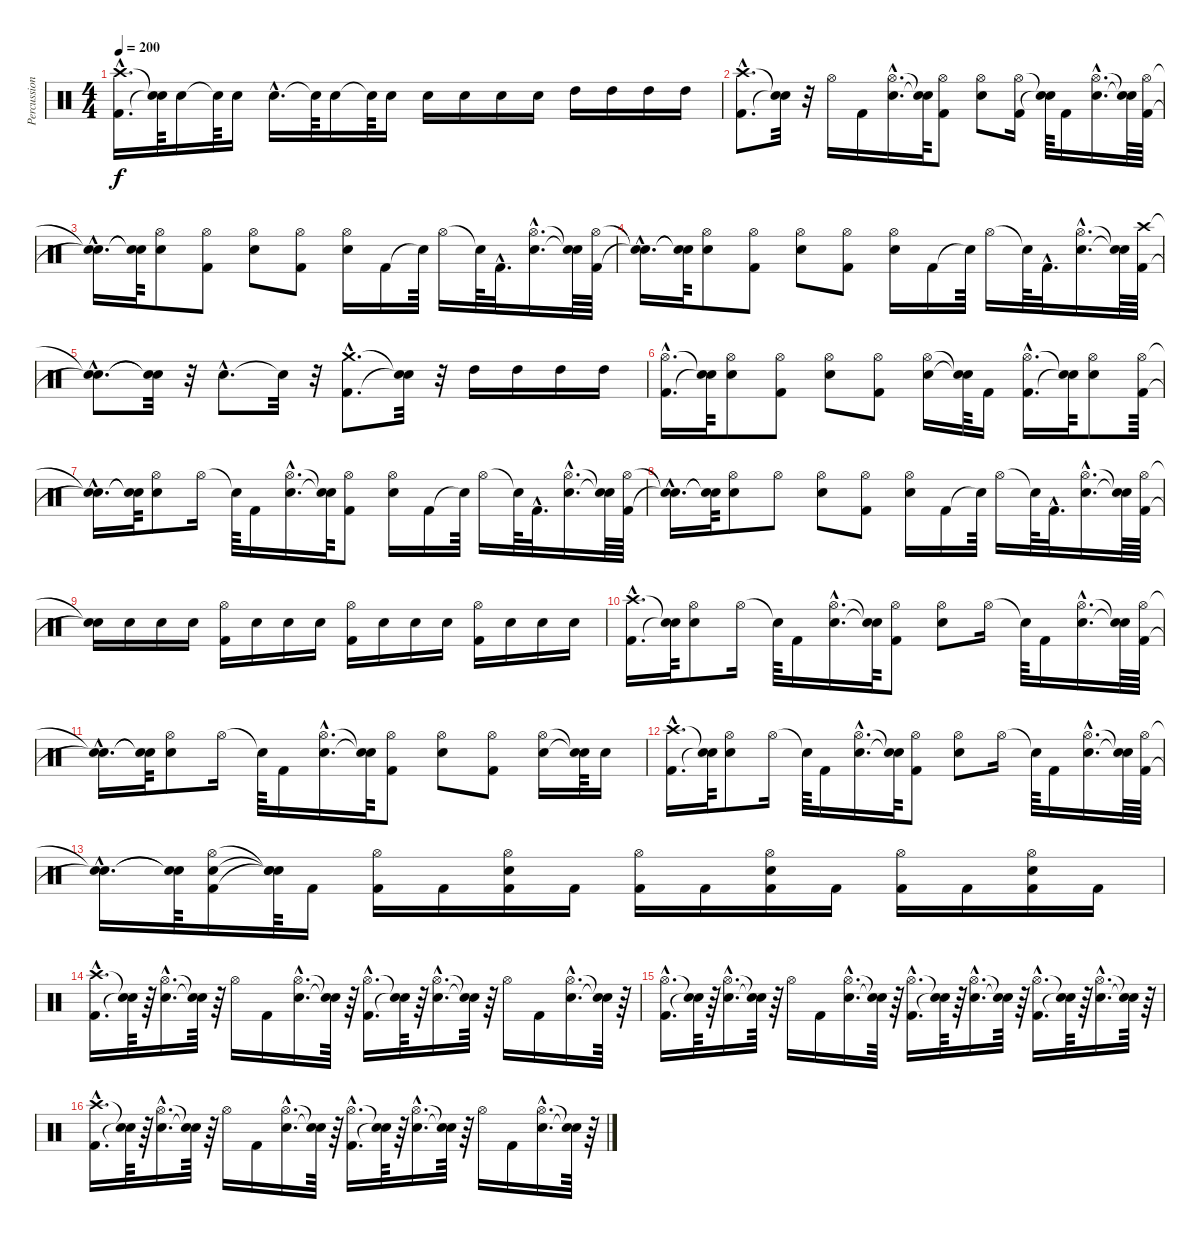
\track ("Percussion" "Percussion") {instrument percussion}
\staff {score}
\articulation defaults
\ts (4 4)
\tempo 200
\clef neutral
\ks c
("Kick (hit) 2"{hac} "Crash high (hit)"{hac}).16{d dy f} ("Snare (hit)"{t} "Snare (hit)"{t}).64 "Electric Snare (hit)".16 "Snare (hit)"{t}.64 "Electric Snare (hit)".16 "Electric Snare (hit)"{hac}.16{d} "Snare (hit)"{t}.64 "Electric Snare (hit)".16 "Snare (hit)"{t}.64 "Electric Snare (hit)".16 "Electric Snare (hit)".16 "Electric Snare (hit)".16 "Electric Snare (hit)".16 "Electric Snare (hit)".16 "High Tom (hit)".16 "High Tom (hit)".16 "High Tom (hit)".16 "High Tom (hit)".16 |
("Kick (hit) 2"{hac} "Crash high (hit)"{hac}).8{d} ("Snare (hit)"{t} "Snare (hit)"{t}).32 r.32 "Hi-Hat (open)".16 "Kick (hit) 2".16 ("Electric Snare (hit)"{hac} "Hi-Hat (open)"{hac}).16{d} ("Snare (hit)"{t} "Snare (hit)"{t}).64 ("Hi-Hat (open)" "Kick (hit) 2").8 ("Electric Snare (hit)" "Hi-Hat (open)").8 ("Hi-Hat (open)" "Kick (hit) 2").16 ("Snare (hit)"{t} "Snare (hit)"{t}).64 "Kick (hit) 2".16 ("Electric Snare (hit)"{hac} "Hi-Hat (open)"{hac}).16{d} ("Snare (hit)"{t} "Snare (hit)"{t}).64 ("Hi-Hat (open)" "Kick (hit) 2").64 |
("Snare (hit)"{hac t} "Snare (hit)"{hac t}).16{d} ("Snare (hit)"{t} "Snare (hit)"{t}).64 ("Electric Snare (hit)" "Hi-Hat (open)").8 ("Hi-Hat (open)" "Kick (hit) 2").8 ("Electric Snare (hit)" "Hi-Hat (open)").8 ("Hi-Hat (open)" "Kick (hit) 2").8 ("Electric Snare (hit)" "Hi-Hat (open)").16 "Kick (hit) 2".16 "Snare (hit)"{t}.64 "Hi-Hat (open)".16 "Snare (hit)"{t}.64 "Kick (hit) 2"{hac}.32{d} ("Electric Snare (hit)"{hac} "Hi-Hat (open)"{hac}).16{d} ("Snare (hit)"{t} "Snare (hit)"{t}).64 ("Hi-Hat (open)" "Kick (hit) 2").64 |
("Snare (hit)"{hac t} "Snare (hit)"{hac t}).16{d} ("Snare (hit)"{t} "Snare (hit)"{t}).64 ("Electric Snare (hit)" "Hi-Hat (open)").8 ("Hi-Hat (open)" "Kick (hit) 2").8 ("Electric Snare (hit)" "Hi-Hat (open)").8 ("Hi-Hat (open)" "Kick (hit) 2").8 ("Electric Snare (hit)" "Hi-Hat (open)").16 "Kick (hit) 2".16 "Snare (hit)"{t}.64 "Hi-Hat (open)".16 "Snare (hit)"{t}.64 "Kick (hit) 2"{hac}.32{d} ("Electric Snare (hit)"{hac} "Hi-Hat (open)"{hac}).16{d} ("Snare (hit)"{t} "Snare (hit)"{t}).64 ("Kick (hit) 2" "Crash high (hit)").64 |
("Snare (hit)"{hac t} "Snare (hit)"{hac t}).8{d} ("Snare (hit)"{t} "Snare (hit)"{t}).32 r.32 "Electric Snare (hit)"{hac}.8{d} "Snare (hit)"{t}.32 r.32 ("Kick (hit) 2"{hac} "Crash medium (hit)"{hac}).8{d} ("Snare (hit)"{t} "Snare (hit)"{t}).32 r.32 "High Tom (hit)".16 "High Tom (hit)".16 "High Tom (hit)".16 "High Tom (hit)".16 |
("Hi-Hat (open)"{hac} "Kick (hit) 2"{hac}).16{d} ("Snare (hit)"{t} "Snare (hit)"{t}).64 ("Electric Snare (hit)" "Hi-Hat (open)").8 ("Hi-Hat (open)" "Kick (hit) 2").8 ("Electric Snare (hit)" "Hi-Hat (open)").8 ("Hi-Hat (open)" "Kick (hit) 2").8 ("Electric Snare (hit)" "Hi-Hat (open)").16 ("Snare (hit)"{t} "Snare (hit)"{t}).64 "Kick (hit) 2".16 ("Hi-Hat (open)"{hac} "Kick (hit) 2"{hac}).16{d} ("Snare (hit)"{t} "Snare (hit)"{t}).64 ("Electric Snare (hit)" "Hi-Hat (open)").8 ("Hi-Hat (open)" "Kick (hit) 2").64 |
("Snare (hit)"{hac t} "Snare (hit)"{hac t}).16{d} ("Snare (hit)"{t} "Snare (hit)"{t}).64 ("Electric Snare (hit)" "Hi-Hat (open)").8 "Hi-Hat (open)".16 "Snare (hit)"{t}.64 "Kick (hit) 2".16 ("Electric Snare (hit)"{hac} "Hi-Hat (open)"{hac}).16{d} ("Snare (hit)"{t} "Snare (hit)"{t}).64 ("Hi-Hat (open)" "Kick (hit) 2").8 ("Electric Snare (hit)" "Hi-Hat (open)").16 "Kick (hit) 2".16 "Snare (hit)"{t}.64 "Hi-Hat (open)".16 "Snare (hit)"{t}.64 "Kick (hit) 2"{hac}.32{d} ("Electric Snare (hit)"{hac} "Hi-Hat (open)"{hac}).16{d} ("Snare (hit)"{t} "Snare (hit)"{t}).64 ("Hi-Hat (open)" "Kick (hit) 2").64 |
("Snare (hit)"{hac t} "Snare (hit)"{hac t}).16{d} ("Snare (hit)"{t} "Snare (hit)"{t}).64 ("Electric Snare (hit)" "Hi-Hat (open)").8 "Hi-Hat (open)".8 ("Electric Snare (hit)" "Hi-Hat (open)").8 ("Hi-Hat (open)" "Kick (hit) 2").8 ("Electric Snare (hit)" "Hi-Hat (open)").16 "Kick (hit) 2".16 "Snare (hit)"{t}.64 "Hi-Hat (open)".16 "Snare (hit)"{t}.64 "Kick (hit) 2"{hac}.32{d} ("Electric Snare (hit)"{hac} "Hi-Hat (open)"{hac}).16{d} ("Snare (hit)"{t} "Snare (hit)"{t}).64 ("Kick (hit) 2" "Hi-Hat (open)").64 |
("Snare (hit)"{t} "Snare (hit)"{t}).16 "Electric Snare (hit)".16 "Electric Snare (hit)".16 "Electric Snare (hit)".16 ("Kick (hit) 2" "Hi-Hat (open)").16 "Electric Snare (hit)".16 "Electric Snare (hit)".16 "Electric Snare (hit)".16 ("Kick (hit) 2" "Hi-Hat (open)").16 "Electric Snare (hit)".16 "Electric Snare (hit)".16 "Electric Snare (hit)".16 ("Kick (hit) 2" "Hi-Hat (open)").16 "Electric Snare (hit)".16 "Electric Snare (hit)".16 "Electric Snare (hit)".16 |
("Crash high (hit)"{hac} "Kick (hit) 2"{hac}).16{d} ("Snare (hit)"{t} "Snare (hit)"{t}).64 ("Electric Snare (hit)" "Hi-Hat (open)").8 "Hi-Hat (open)".16 "Snare (hit)"{t}.64 "Kick (hit) 2".16 ("Electric Snare (hit)"{hac} "Hi-Hat (open)"{hac}).16{d} ("Snare (hit)"{t} "Snare (hit)"{t}).64 ("Hi-Hat (open)" "Kick (hit) 2").8 ("Electric Snare (hit)" "Hi-Hat (open)").8 "Hi-Hat (open)".16 "Snare (hit)"{t}.64 "Kick (hit) 2".16 ("Electric Snare (hit)"{hac} "Hi-Hat (open)"{hac}).16{d} ("Snare (hit)"{t} "Snare (hit)"{t}).64 ("Hi-Hat (open)" "Kick (hit) 2").64 |
("Snare (hit)"{hac t} "Snare (hit)"{hac t}).16{d} ("Snare (hit)"{t} "Snare (hit)"{t}).64 ("Electric Snare (hit)" "Hi-Hat (open)").8 "Hi-Hat (open)".16 "Snare (hit)"{t}.64 "Kick (hit) 2".16 ("Electric Snare (hit)"{hac} "Hi-Hat (open)"{hac}).16{d} ("Snare (hit)"{t} "Snare (hit)"{t}).64 ("Hi-Hat (open)" "Kick (hit) 2").8 ("Electric Snare (hit)" "Hi-Hat (open)").8 ("Hi-Hat (open)" "Kick (hit) 2").8 ("Hi-Hat (open)" "Electric Snare (hit)").16 ("Snare (hit)"{t} "Snare (hit)"{t}).64 "Electric Snare (hit)".16 |
("Crash high (hit)"{hac} "Kick (hit) 2"{hac}).16{d} ("Snare (hit)"{t} "Snare (hit)"{t}).64 ("Electric Snare (hit)" "Hi-Hat (open)").8 "Hi-Hat (open)".16 "Snare (hit)"{t}.64 "Kick (hit) 2".16 ("Electric Snare (hit)"{hac} "Hi-Hat (open)"{hac}).16{d} ("Snare (hit)"{t} "Snare (hit)"{t}).64 ("Hi-Hat (open)" "Kick (hit) 2").8 ("Electric Snare (hit)" "Hi-Hat (open)").8 "Hi-Hat (open)".16 "Snare (hit)"{t}.64 "Kick (hit) 2".16 ("Electric Snare (hit)"{hac} "Hi-Hat (open)"{hac}).16{d} ("Snare (hit)"{t} "Snare (hit)"{t}).64 ("Hi-Hat (open)" "Kick (hit) 2").64 |
("Snare (hit)"{hac t} "Snare (hit)"{hac t}).16{d} ("Snare (hit)"{t} "Snare (hit)"{t}).64 ("Electric Snare (hit)" "Hi-Hat (open)" "Kick (hit) 2").16 ("Snare (hit)"{t} "Snare (hit)"{t} "Snare (hit)"{t}).64 "Kick (hit) 2".16 ("Hi-Hat (open)" "Kick (hit) 2").16 "Kick (hit) 2".16 ("Electric Snare (hit)" "Hi-Hat (open)" "Kick (hit) 2").16 "Kick (hit) 2".16 ("Hi-Hat (open)" "Kick (hit) 2").16 "Kick (hit) 2".16 ("Electric Snare (hit)" "Hi-Hat (open)" "Kick (hit) 2").16 "Kick (hit) 2".16 ("Hi-Hat (open)" "Kick (hit) 2").16 "Kick (hit) 2".16 ("Electric Snare (hit)" "Hi-Hat (open)" "Kick (hit) 2").16 "Kick (hit) 2".16 |
("Crash high (hit)"{hac} "Kick (hit) 2"{hac}).16{d} ("Snare (hit)"{t} "Snare (hit)"{t}).64 r.64 ("Electric Snare (hit)"{hac} "Hi-Hat (open)"{hac}).16{d} ("Snare (hit)"{t} "Snare (hit)"{t}).64 r.64 "Hi-Hat (open)".16 "Kick (hit) 2".16 ("Electric Snare (hit)"{hac} "Hi-Hat (open)"{hac}).16{d} ("Snare (hit)"{t} "Snare (hit)"{t}).64 r.64 ("Hi-Hat (open)"{hac} "Kick (hit) 2"{hac}).16{d} ("Snare (hit)"{t} "Snare (hit)"{t}).64 r.64 ("Electric Snare (hit)"{hac} "Hi-Hat (open)"{hac}).16{d} ("Snare (hit)"{t} "Snare (hit)"{t}).64 r.64 "Hi-Hat (open)".16 "Kick (hit) 2".16 ("Electric Snare (hit)"{hac} "Hi-Hat (open)"{hac}).16{d} ("Snare (hit)"{t} "Snare (hit)"{t}).64 r.64 |
("Hi-Hat (open)"{hac} "Kick (hit) 2"{hac}).16{d} ("Snare (hit)"{t} "Snare (hit)"{t}).64 r.64 ("Electric Snare (hit)"{hac} "Hi-Hat (open)"{hac}).16{d} ("Snare (hit)"{t} "Snare (hit)"{t}).64 r.64 "Hi-Hat (open)".16 "Kick (hit) 2".16 ("Electric Snare (hit)"{hac} "Hi-Hat (open)"{hac}).16{d} ("Snare (hit)"{t} "Snare (hit)"{t}).64 r.64 ("Hi-Hat (open)"{hac} "Kick (hit) 2"{hac}).16{d} ("Snare (hit)"{t} "Snare (hit)"{t}).64 r.64 ("Electric Snare (hit)"{hac} "Hi-Hat (open)"{hac}).16{d} ("Snare (hit)"{t} "Snare (hit)"{t}).64 r.64 ("Hi-Hat (open)"{hac} "Kick (hit) 2"{hac}).16{d} ("Snare (hit)"{t} "Snare (hit)"{t}).64 r.64 ("Electric Snare (hit)"{hac} "Hi-Hat (open)"{hac}).16{d} ("Snare (hit)"{t} "Snare (hit)"{t}).64 r.64 |
("Crash high (hit)"{hac} "Kick (hit) 2"{hac}).16{d} ("Snare (hit)"{t} "Snare (hit)"{t}).64 r.64 ("Electric Snare (hit)"{hac} "Hi-Hat (open)"{hac}).16{d} ("Snare (hit)"{t} "Snare (hit)"{t}).64 r.64 "Hi-Hat (open)".16 "Kick (hit) 2".16 ("Electric Snare (hit)"{hac} "Hi-Hat (open)"{hac}).16{d} ("Snare (hit)"{t} "Snare (hit)"{t}).64 r.64 ("Hi-Hat (open)"{hac} "Kick (hit) 2"{hac}).16{d} ("Snare (hit)"{t} "Snare (hit)"{t}).64 r.64 ("Electric Snare (hit)"{hac} "Hi-Hat (open)"{hac}).16{d} ("Snare (hit)"{t} "Snare (hit)"{t}).64 r.64 "Hi-Hat (open)".16 "Kick (hit) 2".16 ("Electric Snare (hit)"{hac} "Hi-Hat (open)"{hac}).16{d} ("Snare (hit)"{t} "Snare (hit)"{t}).64 r.64
